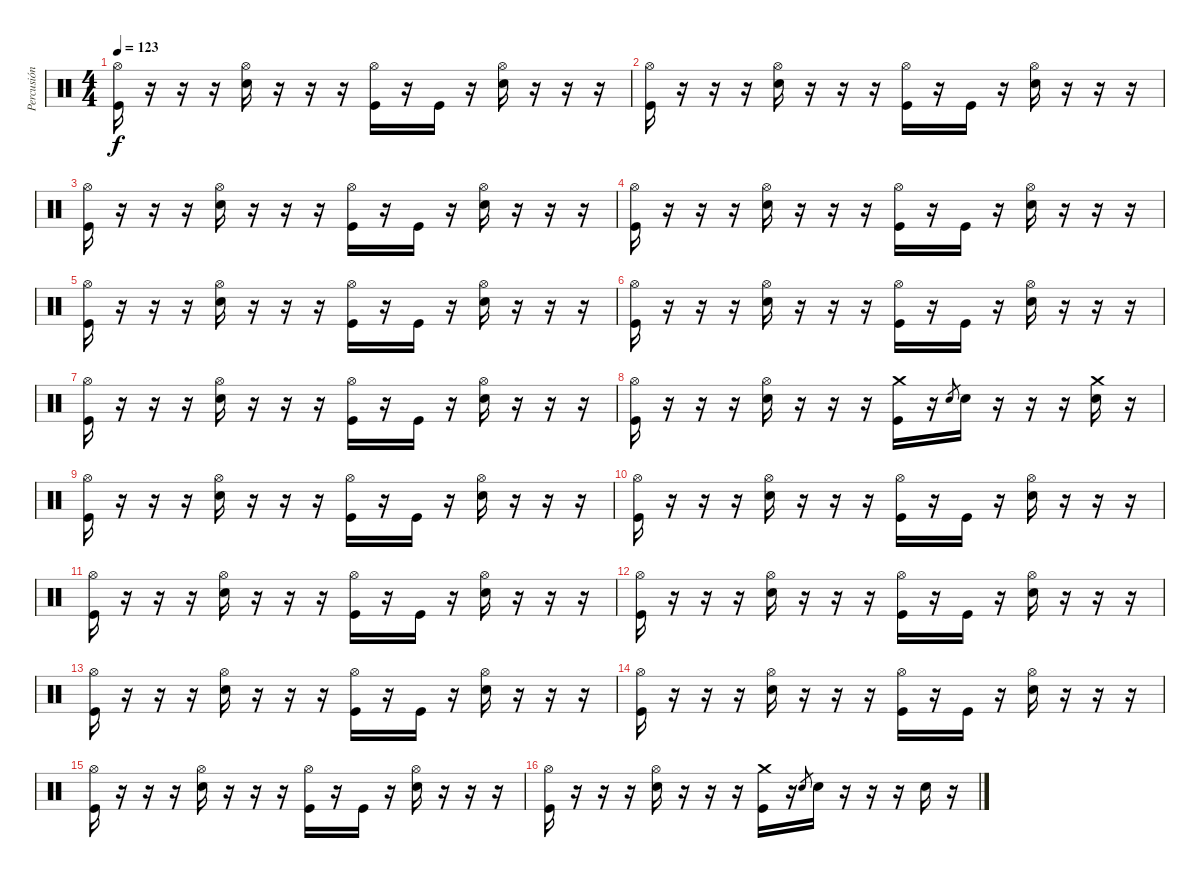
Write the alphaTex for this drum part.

\track ("Percusión" "Percusión") {instrument percussion}
\staff {score}
\articulation defaults
\ts (4 4)
\tempo 123
\clef neutral
\ks c
("Hi-Hat (open)" "Kick (hit)").16{dy f} r.16 r.16 r.16 ("Hi-Hat (open)" "Snare (hit) 2").16 r.16 r.16 r.16 ("Hi-Hat (open)" "Kick (hit)").16 r.16 "Kick (hit)".16 r.16 ("Hi-Hat (open)" "Snare (hit) 2").16 r.16 r.16 r.16 |
("Hi-Hat (open)" "Kick (hit)").16 r.16 r.16 r.16 ("Hi-Hat (open)" "Snare (hit) 2").16 r.16 r.16 r.16 ("Hi-Hat (open)" "Kick (hit)").16 r.16 "Kick (hit)".16 r.16 ("Hi-Hat (open)" "Snare (hit) 2").16 r.16 r.16 r.16 |
("Hi-Hat (open)" "Kick (hit)").16 r.16 r.16 r.16 ("Hi-Hat (open)" "Snare (hit) 2").16 r.16 r.16 r.16 ("Hi-Hat (open)" "Kick (hit)").16 r.16 "Kick (hit)".16 r.16 ("Hi-Hat (open)" "Snare (hit) 2").16 r.16 r.16 r.16 |
("Hi-Hat (open)" "Kick (hit)").16 r.16 r.16 r.16 ("Hi-Hat (open)" "Snare (hit) 2").16 r.16 r.16 r.16 ("Hi-Hat (open)" "Kick (hit)").16 r.16 "Kick (hit)".16 r.16 ("Hi-Hat (open)" "Snare (hit) 2").16 r.16 r.16 r.16 |
("Hi-Hat (open)" "Kick (hit)").16 r.16 r.16 r.16 ("Hi-Hat (open)" "Snare (hit) 2").16 r.16 r.16 r.16 ("Hi-Hat (open)" "Kick (hit)").16 r.16 "Kick (hit)".16 r.16 ("Hi-Hat (open)" "Snare (hit) 2").16 r.16 r.16 r.16 |
("Hi-Hat (open)" "Kick (hit)").16 r.16 r.16 r.16 ("Hi-Hat (open)" "Snare (hit) 2").16 r.16 r.16 r.16 ("Hi-Hat (open)" "Kick (hit)").16 r.16 "Kick (hit)".16 r.16 ("Hi-Hat (open)" "Snare (hit) 2").16 r.16 r.16 r.16 |
("Hi-Hat (open)" "Kick (hit)").16 r.16 r.16 r.16 ("Hi-Hat (open)" "Snare (hit) 2").16 r.16 r.16 r.16 ("Hi-Hat (open)" "Kick (hit)").16 r.16 "Kick (hit)".16 r.16 ("Hi-Hat (open)" "Snare (hit) 2").16 r.16 r.16 r.16 |
("Hi-Hat (open)" "Kick (hit)").16 r.16 r.16 r.16 ("Hi-Hat (open)" "Snare (hit) 2").16 r.16 r.16 r.16 ("Crash medium (hit)" "Kick (hit)").16 r.16 "Snare (hit) 2".8{gr} "Snare (hit) 2".16 r.16 r.16 r.16 ("Crash medium (hit)" "Snare (hit) 2").16 r.16 |
("Hi-Hat (open)" "Kick (hit)").16 r.16 r.16 r.16 ("Hi-Hat (open)" "Snare (hit) 2").16 r.16 r.16 r.16 ("Hi-Hat (open)" "Kick (hit)").16 r.16 "Kick (hit)".16 r.16 ("Hi-Hat (open)" "Snare (hit) 2").16 r.16 r.16 r.16 |
("Hi-Hat (open)" "Kick (hit)").16 r.16 r.16 r.16 ("Hi-Hat (open)" "Snare (hit) 2").16 r.16 r.16 r.16 ("Hi-Hat (open)" "Kick (hit)").16 r.16 "Kick (hit)".16 r.16 ("Hi-Hat (open)" "Snare (hit) 2").16 r.16 r.16 r.16 |
("Hi-Hat (open)" "Kick (hit)").16 r.16 r.16 r.16 ("Hi-Hat (open)" "Snare (hit) 2").16 r.16 r.16 r.16 ("Hi-Hat (open)" "Kick (hit)").16 r.16 "Kick (hit)".16 r.16 ("Hi-Hat (open)" "Snare (hit) 2").16 r.16 r.16 r.16 |
("Hi-Hat (open)" "Kick (hit)").16 r.16 r.16 r.16 ("Hi-Hat (open)" "Snare (hit) 2").16 r.16 r.16 r.16 ("Hi-Hat (open)" "Kick (hit)").16 r.16 "Kick (hit)".16 r.16 ("Hi-Hat (open)" "Snare (hit) 2").16 r.16 r.16 r.16 |
("Hi-Hat (open)" "Kick (hit)").16 r.16 r.16 r.16 ("Hi-Hat (open)" "Snare (hit) 2").16 r.16 r.16 r.16 ("Hi-Hat (open)" "Kick (hit)").16 r.16 "Kick (hit)".16 r.16 ("Hi-Hat (open)" "Snare (hit) 2").16 r.16 r.16 r.16 |
("Hi-Hat (open)" "Kick (hit)").16 r.16 r.16 r.16 ("Hi-Hat (open)" "Snare (hit) 2").16 r.16 r.16 r.16 ("Hi-Hat (open)" "Kick (hit)").16 r.16 "Kick (hit)".16 r.16 ("Hi-Hat (open)" "Snare (hit) 2").16 r.16 r.16 r.16 |
("Hi-Hat (open)" "Kick (hit)").16 r.16 r.16 r.16 ("Hi-Hat (open)" "Snare (hit) 2").16 r.16 r.16 r.16 ("Hi-Hat (open)" "Kick (hit)").16 r.16 "Kick (hit)".16 r.16 ("Hi-Hat (open)" "Snare (hit) 2").16 r.16 r.16 r.16 |
("Hi-Hat (open)" "Kick (hit)").16 r.16 r.16 r.16 ("Hi-Hat (open)" "Snare (hit) 2").16 r.16 r.16 r.16 ("Crash medium (hit)" "Kick (hit)").16 r.16 "Snare (hit) 2".8{gr} "Snare (hit) 2".16 r.16 r.16 r.16 "Snare (hit) 2".16 r.16
